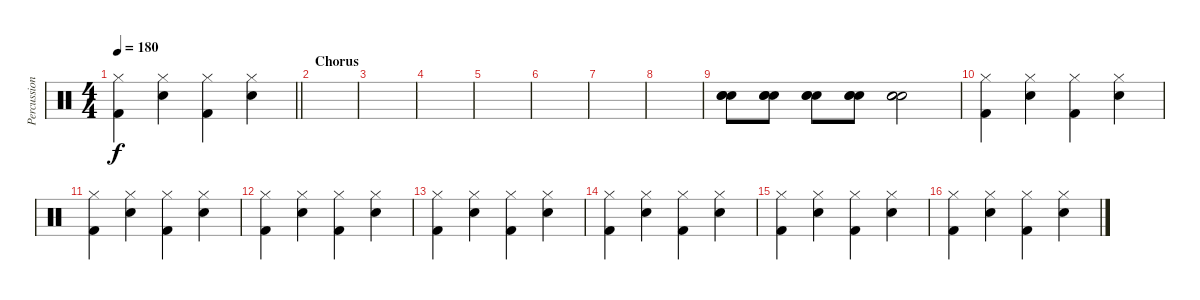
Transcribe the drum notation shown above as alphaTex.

\track ("Percussion" "Percussion") {instrument percussion}
\staff {score}
\articulation defaults
\ts (4 4)
\tempo 180
\clef neutral
\barLineRight lightlight
\ks c
("Hi-Hat (closed)" "Kick (hit) 2").4{dy f} ("Hi-Hat (closed)" "Electric Snare (hit)").4 ("Hi-Hat (closed)" "Kick (hit) 2").4 ("Hi-Hat (closed)" "Electric Snare (hit)").4 |
\section ("" "Chorus")
|
|
|
|
|
|
|
("Electric Snare (hit)" "Electric Snare (hit)" "Electric Snare (hit)").8 ("Electric Snare (hit)" "Electric Snare (hit)" "Electric Snare (hit)").8 ("Electric Snare (hit)" "Electric Snare (hit)" "Electric Snare (hit)").8 ("Electric Snare (hit)" "Electric Snare (hit)" "Electric Snare (hit)").8 ("Electric Snare (hit)" "Electric Snare (hit)" "Electric Snare (hit)").2 |
("Hi-Hat (closed)" "Kick (hit) 2").4 ("Hi-Hat (closed)" "Electric Snare (hit)").4 ("Hi-Hat (closed)" "Kick (hit) 2").4 ("Hi-Hat (closed)" "Electric Snare (hit)").4 |
("Hi-Hat (closed)" "Kick (hit) 2").4 ("Hi-Hat (closed)" "Electric Snare (hit)").4 ("Hi-Hat (closed)" "Kick (hit) 2").4 ("Hi-Hat (closed)" "Electric Snare (hit)").4 |
("Hi-Hat (closed)" "Kick (hit) 2").4 ("Hi-Hat (closed)" "Electric Snare (hit)").4 ("Hi-Hat (closed)" "Kick (hit) 2").4 ("Hi-Hat (closed)" "Electric Snare (hit)").4 |
("Hi-Hat (closed)" "Kick (hit) 2").4 ("Hi-Hat (closed)" "Electric Snare (hit)").4 ("Hi-Hat (closed)" "Kick (hit) 2").4 ("Hi-Hat (closed)" "Electric Snare (hit)").4 |
("Hi-Hat (closed)" "Kick (hit) 2").4 ("Hi-Hat (closed)" "Electric Snare (hit)").4 ("Hi-Hat (closed)" "Kick (hit) 2").4 ("Hi-Hat (closed)" "Electric Snare (hit)").4 |
("Hi-Hat (closed)" "Kick (hit) 2").4 ("Hi-Hat (closed)" "Electric Snare (hit)").4 ("Hi-Hat (closed)" "Kick (hit) 2").4 ("Hi-Hat (closed)" "Electric Snare (hit)").4 |
("Hi-Hat (closed)" "Kick (hit) 2").4 ("Hi-Hat (closed)" "Electric Snare (hit)").4 ("Hi-Hat (closed)" "Kick (hit) 2").4 ("Hi-Hat (closed)" "Electric Snare (hit)").4
